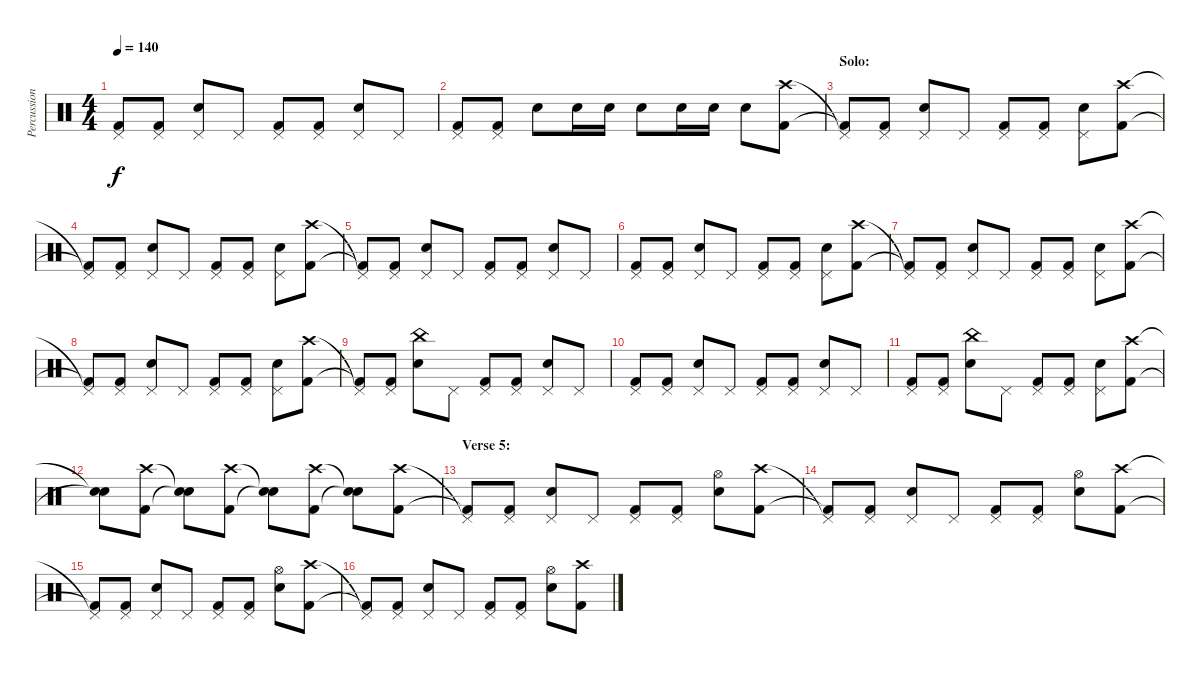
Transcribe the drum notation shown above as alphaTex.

\track ("Percussion" "Percussion") {instrument percussion}
\staff {score}
\articulation defaults
\ts (4 4)
\tempo 140
\clef neutral
\ks c
("Pedal Hi-Hat (hit)"{t} "Kick (hit) 2"{t}).8{dy f} ("Pedal Hi-Hat (hit)" "Kick (hit) 2").8 ("Pedal Hi-Hat (hit)" "Snare (hit) 2").8 "Pedal Hi-Hat (hit)".8 ("Pedal Hi-Hat (hit)" "Kick (hit) 2").8 ("Pedal Hi-Hat (hit)" "Kick (hit) 2").8 ("Pedal Hi-Hat (hit)" "Snare (hit) 2").8 "Pedal Hi-Hat (hit)".8 |
("Pedal Hi-Hat (hit)" "Kick (hit) 2").8 ("Pedal Hi-Hat (hit)" "Kick (hit) 2").8 "Snare (hit) 2".8 "Snare (hit) 2".16 "Snare (hit) 2".16 "Snare (hit) 2".8 "Snare (hit) 2".16 "Snare (hit) 2".16 "Snare (hit) 2".8 ("Crash high (hit)" "Kick (hit) 2").8 |
\section ("" "Solo:")
("Pedal Hi-Hat (hit)"{t} "Kick (hit) 2"{t}).8 ("Pedal Hi-Hat (hit)" "Kick (hit) 2").8 ("Pedal Hi-Hat (hit)" "Snare (hit) 2").8 "Pedal Hi-Hat (hit)".8 ("Pedal Hi-Hat (hit)" "Kick (hit) 2").8 ("Pedal Hi-Hat (hit)" "Kick (hit) 2").8 ("Pedal Hi-Hat (hit)" "Snare (hit) 2").8 ("Crash high (hit)" "Kick (hit) 2").8 |
("Pedal Hi-Hat (hit)"{t} "Kick (hit) 2"{t}).8 ("Pedal Hi-Hat (hit)" "Kick (hit) 2").8 ("Pedal Hi-Hat (hit)" "Snare (hit) 2").8 "Pedal Hi-Hat (hit)".8 ("Pedal Hi-Hat (hit)" "Kick (hit) 2").8 ("Pedal Hi-Hat (hit)" "Kick (hit) 2").8 ("Pedal Hi-Hat (hit)" "Snare (hit) 2").8 ("Crash high (hit)" "Kick (hit) 2").8 |
("Pedal Hi-Hat (hit)"{t} "Kick (hit) 2"{t}).8 ("Pedal Hi-Hat (hit)" "Kick (hit) 2").8 ("Pedal Hi-Hat (hit)" "Snare (hit) 2").8 "Pedal Hi-Hat (hit)".8 ("Pedal Hi-Hat (hit)" "Kick (hit) 2").8 ("Pedal Hi-Hat (hit)" "Kick (hit) 2").8 ("Pedal Hi-Hat (hit)" "Snare (hit) 2").8 "Pedal Hi-Hat (hit)".8 |
("Pedal Hi-Hat (hit)" "Kick (hit) 2").8 ("Pedal Hi-Hat (hit)" "Kick (hit) 2").8 ("Pedal Hi-Hat (hit)" "Snare (hit) 2").8 "Pedal Hi-Hat (hit)".8 ("Pedal Hi-Hat (hit)" "Kick (hit) 2").8 ("Pedal Hi-Hat (hit)" "Kick (hit) 2").8 ("Pedal Hi-Hat (hit)" "Snare (hit) 2").8 ("Crash high (hit)" "Kick (hit) 2").8 |
("Pedal Hi-Hat (hit)"{t} "Kick (hit) 2"{t}).8 ("Pedal Hi-Hat (hit)" "Kick (hit) 2").8 ("Pedal Hi-Hat (hit)" "Snare (hit) 2").8 "Pedal Hi-Hat (hit)".8 ("Pedal Hi-Hat (hit)" "Kick (hit) 2").8 ("Pedal Hi-Hat (hit)" "Kick (hit) 2").8 ("Pedal Hi-Hat (hit)" "Snare (hit) 2").8 ("Crash high (hit)" "Kick (hit) 2").8 |
("Pedal Hi-Hat (hit)"{t} "Kick (hit) 2"{t}).8 ("Pedal Hi-Hat (hit)" "Kick (hit) 2").8 ("Pedal Hi-Hat (hit)" "Snare (hit) 2").8 "Pedal Hi-Hat (hit)".8 ("Pedal Hi-Hat (hit)" "Kick (hit) 2").8 ("Pedal Hi-Hat (hit)" "Kick (hit) 2").8 ("Pedal Hi-Hat (hit)" "Snare (hit) 2").8 ("Crash high (hit)" "Kick (hit) 2").8 |
("Pedal Hi-Hat (hit)"{t} "Kick (hit) 2"{t}).8 ("Pedal Hi-Hat (hit)" "Kick (hit) 2").8 ("China (hit)" "Snare (hit) 2").8 "Pedal Hi-Hat (hit)".8 ("Pedal Hi-Hat (hit)" "Kick (hit) 2").8 ("Pedal Hi-Hat (hit)" "Kick (hit) 2").8 ("Pedal Hi-Hat (hit)" "Snare (hit) 2").8 "Pedal Hi-Hat (hit)".8 |
("Pedal Hi-Hat (hit)" "Kick (hit) 2").8 ("Pedal Hi-Hat (hit)" "Kick (hit) 2").8 ("Pedal Hi-Hat (hit)" "Snare (hit) 2").8 "Pedal Hi-Hat (hit)".8 ("Pedal Hi-Hat (hit)" "Kick (hit) 2").8 ("Pedal Hi-Hat (hit)" "Kick (hit) 2").8 ("Pedal Hi-Hat (hit)" "Snare (hit) 2").8 "Pedal Hi-Hat (hit)".8 |
("Pedal Hi-Hat (hit)" "Kick (hit) 2").8 ("Pedal Hi-Hat (hit)" "Kick (hit) 2").8 ("China (hit)" "Snare (hit) 2").8 "Pedal Hi-Hat (hit)".8 ("Pedal Hi-Hat (hit)" "Kick (hit) 2").8 ("Pedal Hi-Hat (hit)" "Kick (hit) 2").8 ("Pedal Hi-Hat (hit)" "Snare (hit) 2").8 ("Crash high (hit)" "Kick (hit) 2").8 |
("Snare (hit)"{t} "Snare (hit)"{t}).8 ("Crash high (hit)" "Kick (hit) 2").8 ("Snare (hit)"{t} "Snare (hit)"{t}).8 ("Crash high (hit)" "Kick (hit) 2").8 ("Snare (hit)"{t} "Snare (hit)"{t}).8 ("Crash high (hit)" "Kick (hit) 2").8 ("Snare (hit)"{t} "Snare (hit)"{t}).8 ("Crash high (hit)" "Kick (hit) 2").8 |
\section ("" "Verse 5:")
("Pedal Hi-Hat (hit)"{t} "Kick (hit) 2"{t}).8 ("Pedal Hi-Hat (hit)" "Kick (hit) 2").8 ("Pedal Hi-Hat (hit)" "Snare (hit) 2").8 "Pedal Hi-Hat (hit)".8 ("Pedal Hi-Hat (hit)" "Kick (hit) 2").8 ("Pedal Hi-Hat (hit)" "Kick (hit) 2").8 ("Hi-Hat (open)" "Snare (hit) 2").8 ("Crash high (hit)" "Kick (hit) 2").8 |
("Pedal Hi-Hat (hit)"{t} "Kick (hit) 2"{t}).8 ("Pedal Hi-Hat (hit)" "Kick (hit) 2").8 ("Pedal Hi-Hat (hit)" "Snare (hit) 2").8 "Pedal Hi-Hat (hit)".8 ("Pedal Hi-Hat (hit)" "Kick (hit) 2").8 ("Pedal Hi-Hat (hit)" "Kick (hit) 2").8 ("Hi-Hat (open)" "Snare (hit) 2").8 ("Crash high (hit)" "Kick (hit) 2").8 |
("Pedal Hi-Hat (hit)"{t} "Kick (hit) 2"{t}).8 ("Pedal Hi-Hat (hit)" "Kick (hit) 2").8 ("Pedal Hi-Hat (hit)" "Snare (hit) 2").8 "Pedal Hi-Hat (hit)".8 ("Pedal Hi-Hat (hit)" "Kick (hit) 2").8 ("Pedal Hi-Hat (hit)" "Kick (hit) 2").8 ("Hi-Hat (open)" "Snare (hit) 2").8 ("Crash high (hit)" "Kick (hit) 2").8 |
("Pedal Hi-Hat (hit)"{t} "Kick (hit) 2"{t}).8 ("Pedal Hi-Hat (hit)" "Kick (hit) 2").8 ("Pedal Hi-Hat (hit)" "Snare (hit) 2").8 "Pedal Hi-Hat (hit)".8 ("Pedal Hi-Hat (hit)" "Kick (hit) 2").8 ("Pedal Hi-Hat (hit)" "Kick (hit) 2").8 ("Hi-Hat (open)" "Snare (hit) 2").8 ("Crash high (hit)" "Kick (hit) 2").8
